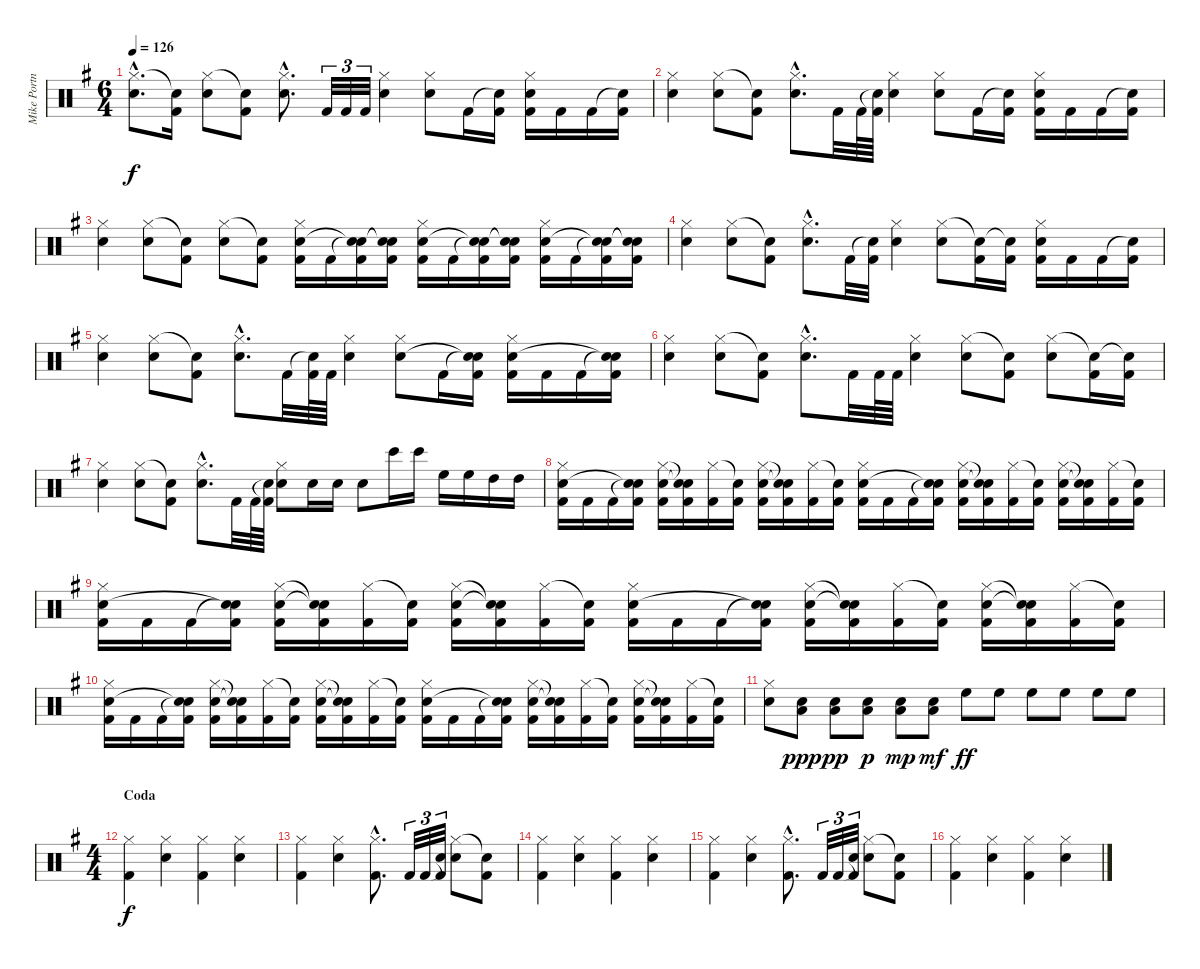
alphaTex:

\track ("Mike Portnoy" "Mike Portn") {instrument percussion}
\staff {score}
\articulation defaults
\ts (6 4)
\tempo 126
\clef neutral
\ks g
("Hi-Hat (closed)"{hac} "Snare (hit) 2"{hac}).8{d dy f} ("Snare (hit)"{t} "Kick (hit) 2").16 ("Hi-Hat (closed)" "Snare (hit) 2").8 ("Snare (hit)"{t} "Kick (hit) 2").8 ("Hi-Hat (closed)"{hac} "Snare (hit) 2"{hac}).8{d} "Kick (hit) 2".32{tu (3 2)} "Kick (hit) 2".32{tu (3 2)} "Kick (hit) 2".32{tu (3 2)} ("Hi-Hat (closed)" "Snare (hit) 2").4 ("Hi-Hat (closed)" "Snare (hit) 2").8 "Kick (hit) 2".16 ("Snare (hit)"{t} "Kick (hit) 2").16 ("Hi-Hat (closed)" "Snare (hit) 2" "Kick (hit) 2").16 "Kick (hit) 2".16 "Kick (hit) 2".16 ("Snare (hit)"{t} "Kick (hit) 2").16 |
("Hi-Hat (closed)" "Snare (hit) 2").4 ("Hi-Hat (closed)" "Snare (hit) 2").8 ("Snare (hit)"{t} "Kick (hit) 2").8 ("Hi-Hat (closed)"{hac} "Snare (hit) 2"{hac}).8{d} "Kick (hit) 2".32 "Kick (hit) 2".64 ("Snare (hit)"{t} "Kick (hit) 2").64 ("Hi-Hat (closed)" "Snare (hit) 2").4 ("Hi-Hat (closed)" "Snare (hit) 2").8 "Kick (hit) 2".16 ("Snare (hit)"{t} "Kick (hit) 2").16 ("Hi-Hat (closed)" "Snare (hit) 2" "Kick (hit) 2").16 "Kick (hit) 2".16 "Kick (hit) 2".16 ("Snare (hit)"{t} "Kick (hit) 2").16 |
("Hi-Hat (closed)" "Snare (hit) 2").4 ("Hi-Hat (closed)" "Snare (hit) 2").8 ("Snare (hit)"{t} "Kick (hit) 2").8 ("Hi-Hat (closed)" "Snare (hit) 2").8 ("Snare (hit)"{t} "Kick (hit) 2").8 ("Hi-Hat (closed)" "Snare (hit) 2" "Kick (hit) 2").16 "Kick (hit) 2".16 ("Snare (hit)"{t} "Snare (hit)"{t} "Kick (hit) 2").16 ("Snare (hit)"{t} "Snare (hit)"{t} "Kick (hit) 2").16 ("Hi-Hat (closed)" "Snare (hit) 2" "Kick (hit) 2").16 "Kick (hit) 2".16 ("Snare (hit)"{t} "Snare (hit)"{t} "Kick (hit) 2").16 ("Snare (hit)"{t} "Snare (hit)"{t} "Kick (hit) 2").16 ("Hi-Hat (closed)" "Snare (hit) 2" "Kick (hit) 2").16 "Kick (hit) 2".16 ("Snare (hit)"{t} "Snare (hit)"{t} "Kick (hit) 2").16 ("Snare (hit)"{t} "Snare (hit)"{t} "Kick (hit) 2").16 |
("Hi-Hat (closed)" "Snare (hit) 2").4 ("Hi-Hat (closed)" "Snare (hit) 2").8 ("Snare (hit)"{t} "Kick (hit) 2").8 ("Hi-Hat (closed)"{hac} "Snare (hit) 2"{hac}).8{d} "Kick (hit) 2".32 ("Snare (hit)"{t} "Kick (hit) 2").32 ("Hi-Hat (closed)" "Snare (hit) 2").4 ("Hi-Hat (closed)" "Snare (hit) 2").8 ("Snare (hit)"{t} "Kick (hit) 2").16 ("Snare (hit)"{t} "Kick (hit) 2").16 ("Hi-Hat (closed)" "Snare (hit) 2" "Kick (hit) 2").16 "Kick (hit) 2".16 "Kick (hit) 2".16 ("Snare (hit)"{t} "Kick (hit) 2").16 |
("Hi-Hat (closed)" "Snare (hit) 2").4 ("Hi-Hat (closed)" "Snare (hit) 2").8 ("Snare (hit)"{t} "Kick (hit) 2").8 ("Hi-Hat (closed)"{hac} "Snare (hit) 2"{hac}).8{d} "Kick (hit) 2".32 ("Snare (hit)"{t} "Kick (hit) 2").64 "Kick (hit) 2".64 ("Hi-Hat (closed)" "Snare (hit) 2").4 ("Hi-Hat (closed)" "Snare (hit) 2").8 "Kick (hit) 2".16 ("Snare (hit)"{t} "Snare (hit)"{t} "Kick (hit) 2").16 ("Hi-Hat (closed)" "Snare (hit) 2" "Kick (hit) 2").16 "Kick (hit) 2".16 "Kick (hit) 2".16 ("Snare (hit)"{t} "Snare (hit)"{t} "Kick (hit) 2").16 |
("Hi-Hat (closed)" "Snare (hit) 2").4 ("Hi-Hat (closed)" "Snare (hit) 2").8 ("Snare (hit)"{t} "Kick (hit) 2").8 ("Hi-Hat (closed)"{hac} "Snare (hit) 2"{hac}).8{d} "Kick (hit) 2".32 "Kick (hit) 2".64 "Kick (hit) 2".64 ("Hi-Hat (closed)" "Snare (hit) 2").4 ("Hi-Hat (closed)" "Snare (hit) 2").8 ("Snare (hit)"{t} "Kick (hit) 2").8 ("Hi-Hat (closed)" "Snare (hit) 2").8 ("Snare (hit)"{t} "Kick (hit) 2").16 ("Snare (hit)"{t} "Kick (hit) 2").16 |
("Hi-Hat (closed)" "Snare (hit) 2").4 ("Hi-Hat (closed)" "Snare (hit) 2").8 ("Snare (hit)"{t} "Kick (hit) 2").8 ("Hi-Hat (closed)"{hac} "Snare (hit) 2"{hac}).8{d} "Kick (hit) 2".32 "Kick (hit) 2".64 ("Snare (hit)"{t} "Kick (hit) 2").64 ("Hi-Hat (closed)" "Snare (hit) 2").8 "Snare (hit) 2".16 "Snare (hit) 2".16 "Snare (hit) 2".8 "Bongo High (hit)".16 "Bongo High (hit)".16 "High Floor Tom (hit)".16 "High Floor Tom (hit)".16 "High Tom (hit)".16 "High Tom (hit)".16 |
("Hi-Hat (closed)" "Snare (hit) 2" "Kick (hit) 2").16 "Kick (hit) 2".16 "Kick (hit) 2".16 ("Snare (hit)"{t} "Snare (hit)"{t} "Kick (hit) 2").16 ("Hi-Hat (closed)" "Snare (hit) 2" "Kick (hit) 2").16 ("Snare (hit)"{t} "Snare (hit)"{t} "Kick (hit) 2").16 ("Hi-Hat (closed)" "Kick (hit) 2").16 ("Snare (hit)"{t} "Kick (hit) 2").16 ("Hi-Hat (closed)" "Snare (hit) 2" "Kick (hit) 2").16 ("Snare (hit)"{t} "Snare (hit)"{t} "Kick (hit) 2").16 ("Hi-Hat (closed)" "Kick (hit) 2").16 ("Snare (hit)"{t} "Kick (hit) 2").16 ("Hi-Hat (closed)" "Snare (hit) 2" "Kick (hit) 2").16 "Kick (hit) 2".16 "Kick (hit) 2".16 ("Snare (hit)"{t} "Snare (hit)"{t} "Kick (hit) 2").16 ("Hi-Hat (closed)" "Snare (hit) 2" "Kick (hit) 2").16 ("Snare (hit)"{t} "Snare (hit)"{t} "Kick (hit) 2").16 ("Hi-Hat (closed)" "Kick (hit) 2").16 ("Snare (hit)"{t} "Kick (hit) 2").16 ("Hi-Hat (closed)" "Snare (hit) 2" "Kick (hit) 2").16 ("Snare (hit)"{t} "Snare (hit)"{t} "Kick (hit) 2").16 ("Hi-Hat (closed)" "Kick (hit) 2").16 ("Snare (hit)"{t} "Kick (hit) 2").16 |
("Hi-Hat (closed)" "Snare (hit) 2" "Kick (hit) 2").16 "Kick (hit) 2".16 "Kick (hit) 2".16 ("Snare (hit)"{t} "Snare (hit)"{t} "Kick (hit) 2").16 ("Hi-Hat (closed)" "Snare (hit) 2" "Kick (hit) 2").16 ("Snare (hit)"{t} "Snare (hit)"{t} "Kick (hit) 2").16 ("Hi-Hat (closed)" "Kick (hit) 2").16 ("Snare (hit)"{t} "Kick (hit) 2").16 ("Hi-Hat (closed)" "Snare (hit) 2" "Kick (hit) 2").16 ("Snare (hit)"{t} "Snare (hit)"{t} "Kick (hit) 2").16 ("Hi-Hat (closed)" "Kick (hit) 2").16 ("Snare (hit)"{t} "Kick (hit) 2").16 ("Hi-Hat (closed)" "Snare (hit) 2" "Kick (hit) 2").16 "Kick (hit) 2".16 "Kick (hit) 2".16 ("Snare (hit)"{t} "Snare (hit)"{t} "Kick (hit) 2").16 ("Hi-Hat (closed)" "Snare (hit) 2" "Kick (hit) 2").16 ("Snare (hit)"{t} "Snare (hit)"{t} "Kick (hit) 2").16 ("Hi-Hat (closed)" "Kick (hit) 2").16 ("Snare (hit)"{t} "Kick (hit) 2").16 ("Hi-Hat (closed)" "Snare (hit) 2" "Kick (hit) 2").16 ("Snare (hit)"{t} "Snare (hit)"{t} "Kick (hit) 2").16 ("Hi-Hat (closed)" "Kick (hit) 2").16 ("Snare (hit)"{t} "Kick (hit) 2").16 |
("Hi-Hat (closed)" "Snare (hit) 2" "Kick (hit) 2").16 "Kick (hit) 2".16 "Kick (hit) 2".16 ("Snare (hit)"{t} "Snare (hit)"{t} "Kick (hit) 2").16 ("Hi-Hat (closed)" "Snare (hit) 2" "Kick (hit) 2").16 ("Snare (hit)"{t} "Snare (hit)"{t} "Kick (hit) 2").16 ("Hi-Hat (closed)" "Kick (hit) 2").16 ("Snare (hit)"{t} "Kick (hit) 2").16 ("Hi-Hat (closed)" "Snare (hit) 2" "Kick (hit) 2").16 ("Snare (hit)"{t} "Snare (hit)"{t} "Kick (hit) 2").16 ("Hi-Hat (closed)" "Kick (hit) 2").16 ("Snare (hit)"{t} "Kick (hit) 2").16 ("Hi-Hat (closed)" "Snare (hit) 2" "Kick (hit) 2").16 "Kick (hit) 2".16 "Kick (hit) 2".16 ("Snare (hit)"{t} "Snare (hit)"{t} "Kick (hit) 2").16 ("Hi-Hat (closed)" "Snare (hit) 2" "Kick (hit) 2").16 ("Snare (hit)"{t} "Snare (hit)"{t} "Kick (hit) 2").16 ("Hi-Hat (closed)" "Kick (hit) 2").16 ("Snare (hit)"{t} "Kick (hit) 2").16 ("Hi-Hat (closed)" "Snare (hit) 2" "Kick (hit) 2").16 ("Snare (hit)"{t} "Snare (hit)"{t} "Kick (hit) 2").16 ("Hi-Hat (closed)" "Kick (hit) 2").16 ("Snare (hit)"{t} "Kick (hit) 2").16 |
("Hi-Hat (closed)" "Snare (hit) 2").8 ("Low Tom (hit)" "Snare (hit) 2").8{dy ppp} ("Low Tom (hit)" "Snare (hit) 2").8{dy pp} ("Low Tom (hit)" "Snare (hit) 2").8{dy p} ("Low Tom (hit)" "Snare (hit) 2").8{dy mp} ("Low Tom (hit)" "Snare (hit) 2").8{dy mf} "High Floor Tom (hit)".8{dy ff} "High Floor Tom (hit)".8 "High Floor Tom (hit)".8 "High Floor Tom (hit)".8 "High Floor Tom (hit)".8 "High Floor Tom (hit)".8 |
\ts (4 4)
\section ("" "Coda")
("Hi-Hat (closed)" "Kick (hit) 2").4{dy f} ("Hi-Hat (closed)" "Snare (hit) 2").4 ("Hi-Hat (closed)" "Kick (hit) 2").4 ("Hi-Hat (closed)" "Snare (hit) 2").4 |
("Hi-Hat (closed)" "Kick (hit) 2").4 ("Hi-Hat (closed)" "Snare (hit) 2").4 ("Hi-Hat (closed)"{hac} "Kick (hit) 2"{hac}).8{d} "Kick (hit) 2".32{tu (3 2)} "Kick (hit) 2".32{tu (3 2)} ("Snare (hit)"{t} "Kick (hit) 2").32{tu (3 2)} ("Hi-Hat (closed)" "Snare (hit) 2").8 ("Snare (hit)"{t} "Kick (hit) 2").8 |
("Hi-Hat (closed)" "Kick (hit) 2").4 ("Hi-Hat (closed)" "Snare (hit) 2").4 ("Hi-Hat (closed)" "Kick (hit) 2").4 ("Hi-Hat (closed)" "Snare (hit) 2").4 |
("Hi-Hat (closed)" "Kick (hit) 2").4 ("Hi-Hat (closed)" "Snare (hit) 2").4 ("Hi-Hat (closed)"{hac} "Kick (hit) 2"{hac}).8{d} "Kick (hit) 2".32{tu (3 2)} "Kick (hit) 2".32{tu (3 2)} ("Snare (hit)"{t} "Kick (hit) 2").32{tu (3 2)} ("Hi-Hat (closed)" "Snare (hit) 2").8 ("Snare (hit)"{t} "Kick (hit) 2").8 |
("Hi-Hat (closed)" "Kick (hit) 2").4 ("Hi-Hat (closed)" "Snare (hit) 2").4 ("Hi-Hat (closed)" "Kick (hit) 2").4 ("Hi-Hat (closed)" "Snare (hit) 2").4
